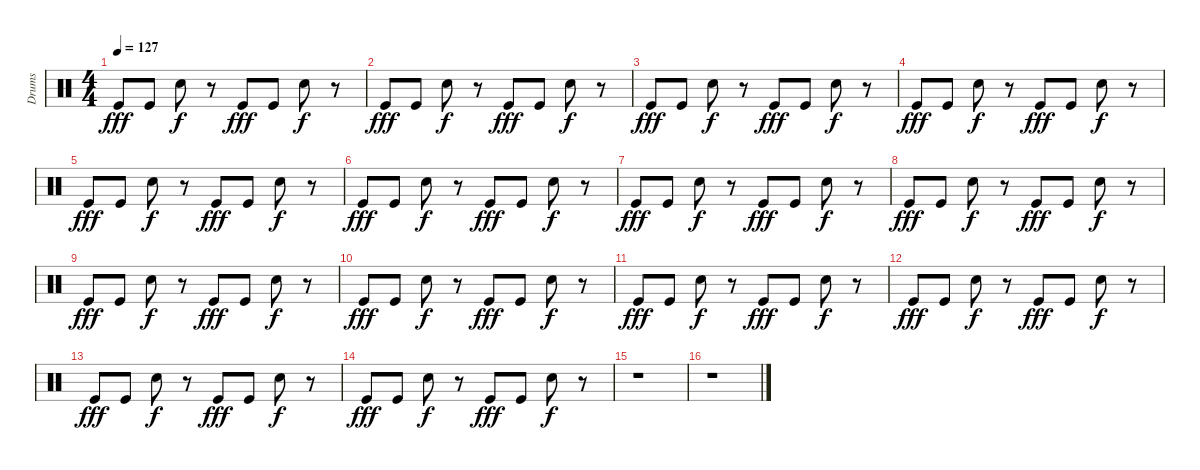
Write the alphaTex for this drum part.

\track ("Drums" "Drums") {instrument percussion}
\staff {score}
\articulation defaults
\ts (4 4)
\tempo 127
\clef neutral
\ks c "Kick (hit)".8{dy fff} "Kick (hit)".8 "Electric Snare (hit)".8{dy f}
r.8 "Kick (hit)".8{dy fff} "Kick (hit)".8 "Electric Snare (hit)".8{dy f} r.8 |
"Kick (hit)".8{dy fff} "Kick (hit)".8 "Electric Snare (hit)".8{dy f} r.8 "Kick (hit)".8{dy fff} "Kick (hit)".8 "Electric Snare (hit)".8{dy f} r.8 |
"Kick (hit)".8{dy fff} "Kick (hit)".8 "Electric Snare (hit)".8{dy f} r.8 "Kick (hit)".8{dy fff} "Kick (hit)".8 "Electric Snare (hit)".8{dy f} r.8 |
"Kick (hit)".8{dy fff} "Kick (hit)".8 "Electric Snare (hit)".8{dy f} r.8 "Kick (hit)".8{dy fff} "Kick (hit)".8 "Electric Snare (hit)".8{dy f} r.8 |
"Kick (hit)".8{dy fff} "Kick (hit)".8 "Electric Snare (hit)".8{dy f} r.8 "Kick (hit)".8{dy fff} "Kick (hit)".8 "Electric Snare (hit)".8{dy f} r.8 |
"Kick (hit)".8{dy fff} "Kick (hit)".8 "Electric Snare (hit)".8{dy f} r.8 "Kick (hit)".8{dy fff} "Kick (hit)".8 "Electric Snare (hit)".8{dy f} r.8 |
"Kick (hit)".8{dy fff} "Kick (hit)".8 "Electric Snare (hit)".8{dy f} r.8 "Kick (hit)".8{dy fff} "Kick (hit)".8 "Electric Snare (hit)".8{dy f} r.8 |
"Kick (hit)".8{dy fff} "Kick (hit)".8 "Electric Snare (hit)".8{dy f} r.8 "Kick (hit)".8{dy fff} "Kick (hit)".8 "Electric Snare (hit)".8{dy f} r.8 |
"Kick (hit)".8{dy fff} "Kick (hit)".8 "Electric Snare (hit)".8{dy f} r.8 "Kick (hit)".8{dy fff} "Kick (hit)".8 "Electric Snare (hit)".8{dy f} r.8 |
"Kick (hit)".8{dy fff} "Kick (hit)".8 "Electric Snare (hit)".8{dy f} r.8 "Kick (hit)".8{dy fff} "Kick (hit)".8 "Electric Snare (hit)".8{dy f} r.8 |
"Kick (hit)".8{dy fff} "Kick (hit)".8 "Electric Snare (hit)".8{dy f} r.8 "Kick (hit)".8{dy fff} "Kick (hit)".8 "Electric Snare (hit)".8{dy f} r.8 |
"Kick (hit)".8{dy fff} "Kick (hit)".8 "Electric Snare (hit)".8{dy f} r.8 "Kick (hit)".8{dy fff} "Kick (hit)".8 "Electric Snare (hit)".8{dy f} r.8 |
"Kick (hit)".8{dy fff} "Kick (hit)".8 "Electric Snare (hit)".8{dy f} r.8 "Kick (hit)".8{dy fff} "Kick (hit)".8 "Electric Snare (hit)".8{dy f} r.8 |
"Kick (hit)".8{dy fff} "Kick (hit)".8 "Electric Snare (hit)".8{dy f} r.8 "Kick (hit)".8{dy fff} "Kick (hit)".8 "Electric Snare (hit)".8{dy f} r.8 |
r.1 |
r.1
